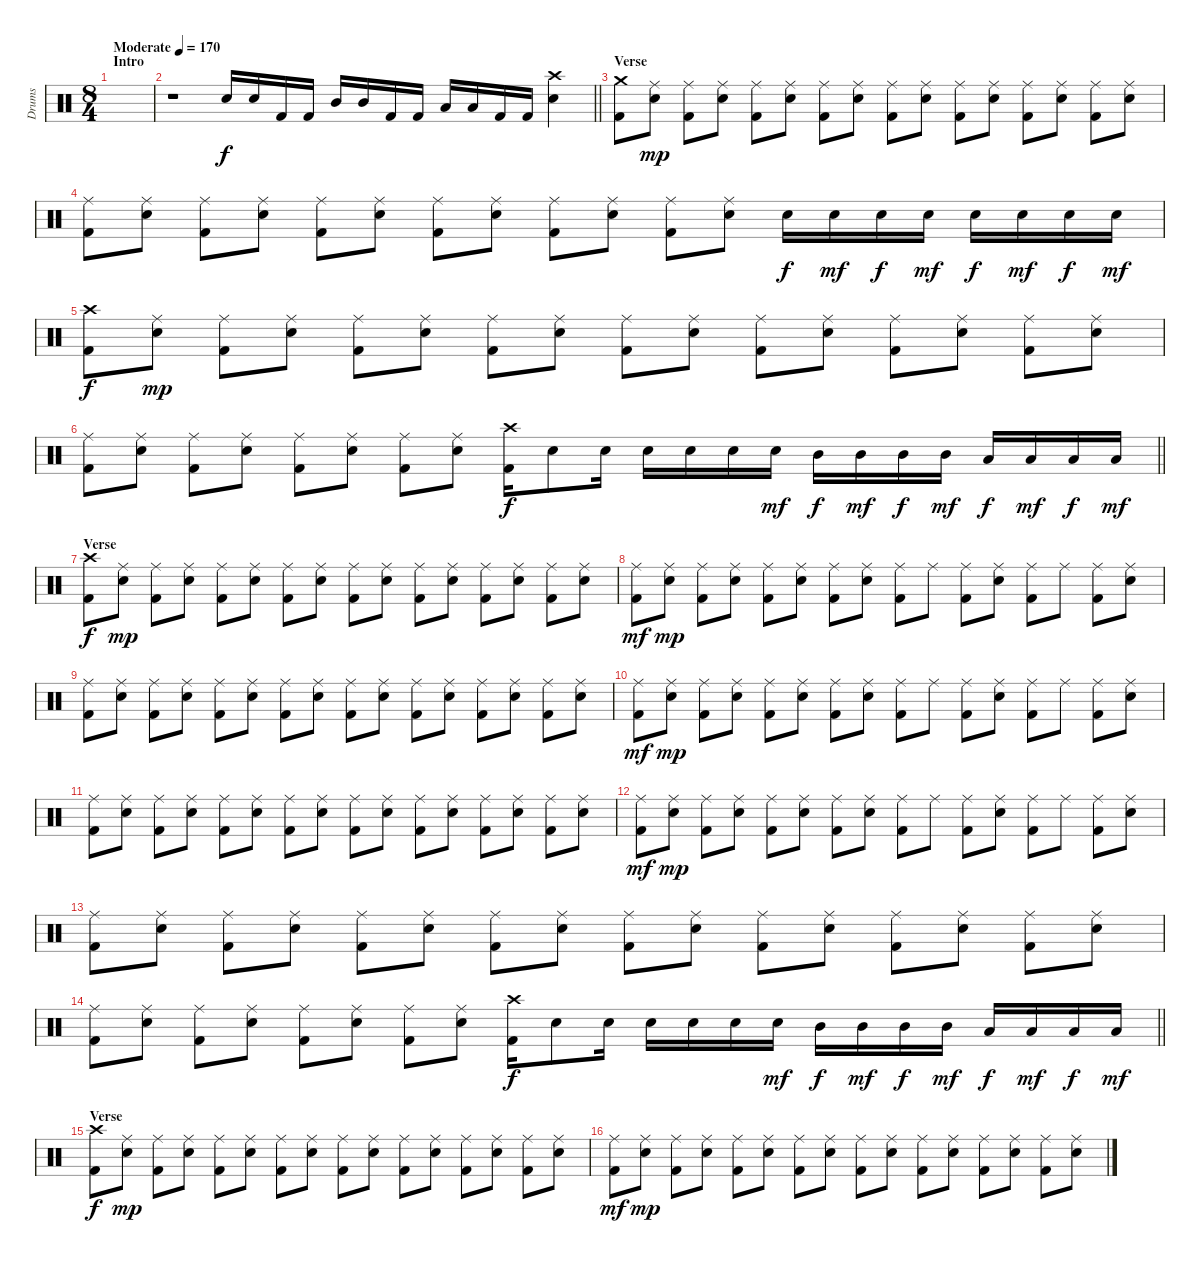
\track ("Drums" "Drums") {instrument percussion}
\staff {score}
\articulation defaults
\ts (8 4)
\section ("" "Intro")
\tempo (170 "Moderate")
\tempo 202
\tempo (170 "Moderate")
\clef neutral
\ks c
|
\barLineRight lightlight
r.1 "Snare (hit) 2".16 "Snare (hit) 2".16 "Kick (hit) 2".16 "Kick (hit) 2".16 "Mid Tom (hit)".16 "Mid Tom (hit)".16 "Kick (hit) 2".16 "Kick (hit) 2".16 "Low Tom (hit)".16 "Low Tom (hit)".16 "Kick (hit) 2".16 "Kick (hit) 2".16 ("Crash high (hit)" "Snare (hit) 2").4 |
\section ("" "Verse")
("Crash medium (hit)" "Kick (hit) 2").8 ("Ride (middle)" "Snare (hit) 2").8{dy mp} ("Ride (middle)" "Kick (hit) 2").8 ("Ride (middle)" "Snare (hit) 2").8 ("Ride (middle)" "Kick (hit) 2").8 ("Ride (middle)" "Snare (hit) 2").8 ("Ride (middle)" "Kick (hit) 2").8 ("Ride (middle)" "Snare (hit) 2").8 ("Ride (middle)" "Kick (hit) 2").8 ("Ride (middle)" "Snare (hit) 2").8 ("Ride (middle)" "Kick (hit) 2").8 ("Ride (middle)" "Snare (hit) 2").8 ("Ride (middle)" "Kick (hit) 2").8 ("Ride (middle)" "Snare (hit) 2").8 ("Ride (middle)" "Kick (hit) 2").8 ("Ride (middle)" "Snare (hit) 2").8 |
("Ride (middle)" "Kick (hit) 2").8 ("Ride (middle)" "Snare (hit) 2").8 ("Ride (middle)" "Kick (hit) 2").8 ("Ride (middle)" "Snare (hit) 2").8 ("Ride (middle)" "Kick (hit) 2").8 ("Ride (middle)" "Snare (hit) 2").8 ("Ride (middle)" "Kick (hit) 2").8 ("Ride (middle)" "Snare (hit) 2").8 ("Ride (middle)" "Kick (hit) 2").8 ("Ride (middle)" "Snare (hit) 2").8 ("Ride (middle)" "Kick (hit) 2").8 ("Ride (middle)" "Snare (hit) 2").8 "Snare (hit) 2".16{dy f} "Snare (hit) 2".16{dy mf} "Snare (hit) 2".16{dy f} "Snare (hit) 2".16{dy mf} "Snare (hit) 2".16{dy f} "Snare (hit) 2".16{dy mf} "Snare (hit) 2".16{dy f} "Snare (hit) 2".16{dy mf} |
("Crash high (hit)" "Kick (hit) 2").8{dy f} ("Ride (middle)" "Snare (hit) 2").8{dy mp} ("Ride (middle)" "Kick (hit) 2").8 ("Ride (middle)" "Snare (hit) 2").8 ("Ride (middle)" "Kick (hit) 2").8 ("Ride (middle)" "Snare (hit) 2").8 ("Ride (middle)" "Kick (hit) 2").8 ("Ride (middle)" "Snare (hit) 2").8 ("Ride (middle)" "Kick (hit) 2").8 ("Ride (middle)" "Snare (hit) 2").8 ("Ride (middle)" "Kick (hit) 2").8 ("Ride (middle)" "Snare (hit) 2").8 ("Ride (middle)" "Kick (hit) 2").8 ("Ride (middle)" "Snare (hit) 2").8 ("Ride (middle)" "Kick (hit) 2").8 ("Ride (middle)" "Snare (hit) 2").8 |
\barLineRight lightlight
("Ride (middle)" "Kick (hit) 2").8 ("Ride (middle)" "Snare (hit) 2").8 ("Ride (middle)" "Kick (hit) 2").8 ("Ride (middle)" "Snare (hit) 2").8 ("Ride (middle)" "Kick (hit) 2").8 ("Ride (middle)" "Snare (hit) 2").8 ("Ride (middle)" "Kick (hit) 2").8 ("Ride (middle)" "Snare (hit) 2").8 ("Crash high (hit)" "Kick (hit) 2").16{dy f} "Snare (hit) 2".8 "Snare (hit) 2".16 "Snare (hit) 2".16 "Snare (hit) 2".16 "Snare (hit) 2".16 "Snare (hit) 2".16{dy mf} "Mid Tom (hit)".16{dy f} "Mid Tom (hit)".16{dy mf} "Mid Tom (hit)".16{dy f} "Mid Tom (hit)".16{dy mf} "Low Tom (hit)".16{dy f} "Low Tom (hit)".16{dy mf} "Low Tom (hit)".16{dy f} "Low Tom (hit)".16{dy mf} |
\section ("" "Verse")
("Crash high (hit)" "Kick (hit) 2").8{dy f} ("Ride (middle)" "Snare (hit) 2").8{dy mp} ("Ride (middle)" "Kick (hit) 2").8 ("Ride (middle)" "Snare (hit) 2").8 ("Ride (middle)" "Kick (hit) 2").8 ("Ride (middle)" "Snare (hit) 2").8 ("Ride (middle)" "Kick (hit) 2").8 ("Ride (middle)" "Snare (hit) 2").8 ("Ride (middle)" "Kick (hit) 2").8 ("Ride (middle)" "Snare (hit) 2").8 ("Ride (middle)" "Kick (hit) 2").8 ("Ride (middle)" "Snare (hit) 2").8 ("Ride (middle)" "Kick (hit) 2").8 ("Ride (middle)" "Snare (hit) 2").8 ("Ride (middle)" "Kick (hit) 2").8 ("Ride (middle)" "Snare (hit) 2").8 |
("Ride (middle)" "Kick (hit) 2").8{dy mf} ("Ride (middle)" "Snare (hit) 2").8{dy mp} ("Ride (middle)" "Kick (hit) 2").8 ("Ride (middle)" "Snare (hit) 2").8 ("Ride (middle)" "Kick (hit) 2").8 ("Ride (middle)" "Snare (hit) 2").8 ("Ride (middle)" "Kick (hit) 2").8 ("Ride (middle)" "Snare (hit) 2").8 ("Ride (middle)" "Kick (hit) 2").8 "Ride (middle)".8 ("Ride (middle)" "Kick (hit) 2").8 ("Ride (middle)" "Snare (hit) 2").8 ("Ride (middle)" "Kick (hit) 2").8 "Ride (middle)".8 ("Ride (middle)" "Kick (hit) 2").8 ("Ride (middle)" "Snare (hit) 2").8 |
("Ride (middle)" "Kick (hit) 2").8 ("Ride (middle)" "Snare (hit) 2").8 ("Ride (middle)" "Kick (hit) 2").8 ("Ride (middle)" "Snare (hit) 2").8 ("Ride (middle)" "Kick (hit) 2").8 ("Ride (middle)" "Snare (hit) 2").8 ("Ride (middle)" "Kick (hit) 2").8 ("Ride (middle)" "Snare (hit) 2").8 ("Ride (middle)" "Kick (hit) 2").8 ("Ride (middle)" "Snare (hit) 2").8 ("Ride (middle)" "Kick (hit) 2").8 ("Ride (middle)" "Snare (hit) 2").8 ("Ride (middle)" "Kick (hit) 2").8 ("Ride (middle)" "Snare (hit) 2").8 ("Ride (middle)" "Kick (hit) 2").8 ("Ride (middle)" "Snare (hit) 2").8 |
("Ride (middle)" "Kick (hit) 2").8{dy mf} ("Ride (middle)" "Snare (hit) 2").8{dy mp} ("Ride (middle)" "Kick (hit) 2").8 ("Ride (middle)" "Snare (hit) 2").8 ("Ride (middle)" "Kick (hit) 2").8 ("Ride (middle)" "Snare (hit) 2").8 ("Ride (middle)" "Kick (hit) 2").8 ("Ride (middle)" "Snare (hit) 2").8 ("Ride (middle)" "Kick (hit) 2").8 "Ride (middle)".8 ("Ride (middle)" "Kick (hit) 2").8 ("Ride (middle)" "Snare (hit) 2").8 ("Ride (middle)" "Kick (hit) 2").8 "Ride (middle)".8 ("Ride (middle)" "Kick (hit) 2").8 ("Ride (middle)" "Snare (hit) 2").8 |
("Ride (middle)" "Kick (hit) 2").8 ("Ride (middle)" "Snare (hit) 2").8 ("Ride (middle)" "Kick (hit) 2").8 ("Ride (middle)" "Snare (hit) 2").8 ("Ride (middle)" "Kick (hit) 2").8 ("Ride (middle)" "Snare (hit) 2").8 ("Ride (middle)" "Kick (hit) 2").8 ("Ride (middle)" "Snare (hit) 2").8 ("Ride (middle)" "Kick (hit) 2").8 ("Ride (middle)" "Snare (hit) 2").8 ("Ride (middle)" "Kick (hit) 2").8 ("Ride (middle)" "Snare (hit) 2").8 ("Ride (middle)" "Kick (hit) 2").8 ("Ride (middle)" "Snare (hit) 2").8 ("Ride (middle)" "Kick (hit) 2").8 ("Ride (middle)" "Snare (hit) 2").8 |
("Ride (middle)" "Kick (hit) 2").8{dy mf} ("Ride (middle)" "Snare (hit) 2").8{dy mp} ("Ride (middle)" "Kick (hit) 2").8 ("Ride (middle)" "Snare (hit) 2").8 ("Ride (middle)" "Kick (hit) 2").8 ("Ride (middle)" "Snare (hit) 2").8 ("Ride (middle)" "Kick (hit) 2").8 ("Ride (middle)" "Snare (hit) 2").8 ("Ride (middle)" "Kick (hit) 2").8 "Ride (middle)".8 ("Ride (middle)" "Kick (hit) 2").8 ("Ride (middle)" "Snare (hit) 2").8 ("Ride (middle)" "Kick (hit) 2").8 "Ride (middle)".8 ("Ride (middle)" "Kick (hit) 2").8 ("Ride (middle)" "Snare (hit) 2").8 |
("Ride (middle)" "Kick (hit) 2").8 ("Ride (middle)" "Snare (hit) 2").8 ("Ride (middle)" "Kick (hit) 2").8 ("Ride (middle)" "Snare (hit) 2").8 ("Ride (middle)" "Kick (hit) 2").8 ("Ride (middle)" "Snare (hit) 2").8 ("Ride (middle)" "Kick (hit) 2").8 ("Ride (middle)" "Snare (hit) 2").8 ("Ride (middle)" "Kick (hit) 2").8 ("Ride (middle)" "Snare (hit) 2").8 ("Ride (middle)" "Kick (hit) 2").8 ("Ride (middle)" "Snare (hit) 2").8 ("Ride (middle)" "Kick (hit) 2").8 ("Ride (middle)" "Snare (hit) 2").8 ("Ride (middle)" "Kick (hit) 2").8 ("Ride (middle)" "Snare (hit) 2").8 |
\barLineRight lightlight
("Ride (middle)" "Kick (hit) 2").8 ("Ride (middle)" "Snare (hit) 2").8 ("Ride (middle)" "Kick (hit) 2").8 ("Ride (middle)" "Snare (hit) 2").8 ("Ride (middle)" "Kick (hit) 2").8 ("Ride (middle)" "Snare (hit) 2").8 ("Ride (middle)" "Kick (hit) 2").8 ("Ride (middle)" "Snare (hit) 2").8 ("Crash high (hit)" "Kick (hit) 2").16{dy f} "Snare (hit) 2".8 "Snare (hit) 2".16 "Snare (hit) 2".16 "Snare (hit) 2".16 "Snare (hit) 2".16 "Snare (hit) 2".16{dy mf} "Mid Tom (hit)".16{dy f} "Mid Tom (hit)".16{dy mf} "Mid Tom (hit)".16{dy f} "Mid Tom (hit)".16{dy mf} "Low Tom (hit)".16{dy f} "Low Tom (hit)".16{dy mf} "Low Tom (hit)".16{dy f} "Low Tom (hit)".16{dy mf} |
\section ("" "Verse")
("Crash high (hit)" "Kick (hit) 2").8{dy f} ("Ride (middle)" "Snare (hit) 2").8{dy mp} ("Ride (middle)" "Kick (hit) 2").8 ("Ride (middle)" "Snare (hit) 2").8 ("Ride (middle)" "Kick (hit) 2").8 ("Ride (middle)" "Snare (hit) 2").8 ("Ride (middle)" "Kick (hit) 2").8 ("Ride (middle)" "Snare (hit) 2").8 ("Ride (middle)" "Kick (hit) 2").8 ("Ride (middle)" "Snare (hit) 2").8 ("Ride (middle)" "Kick (hit) 2").8 ("Ride (middle)" "Snare (hit) 2").8 ("Ride (middle)" "Kick (hit) 2").8 ("Ride (middle)" "Snare (hit) 2").8 ("Ride (middle)" "Kick (hit) 2").8 ("Ride (middle)" "Snare (hit) 2").8 |
("Ride (middle)" "Kick (hit) 2").8{dy mf} ("Ride (middle)" "Snare (hit) 2").8{dy mp} ("Ride (middle)" "Kick (hit) 2").8 ("Ride (middle)" "Snare (hit) 2").8 ("Ride (middle)" "Kick (hit) 2").8 ("Ride (middle)" "Snare (hit) 2").8 ("Ride (middle)" "Kick (hit) 2").8 ("Ride (middle)" "Snare (hit) 2").8 ("Ride (middle)" "Kick (hit) 2").8 ("Ride (middle)" "Snare (hit) 2").8 ("Ride (middle)" "Kick (hit) 2").8 ("Ride (middle)" "Snare (hit) 2").8 ("Ride (middle)" "Kick (hit) 2").8 ("Ride (middle)" "Snare (hit) 2").8 ("Ride (middle)" "Kick (hit) 2").8 ("Ride (middle)" "Snare (hit) 2").8
